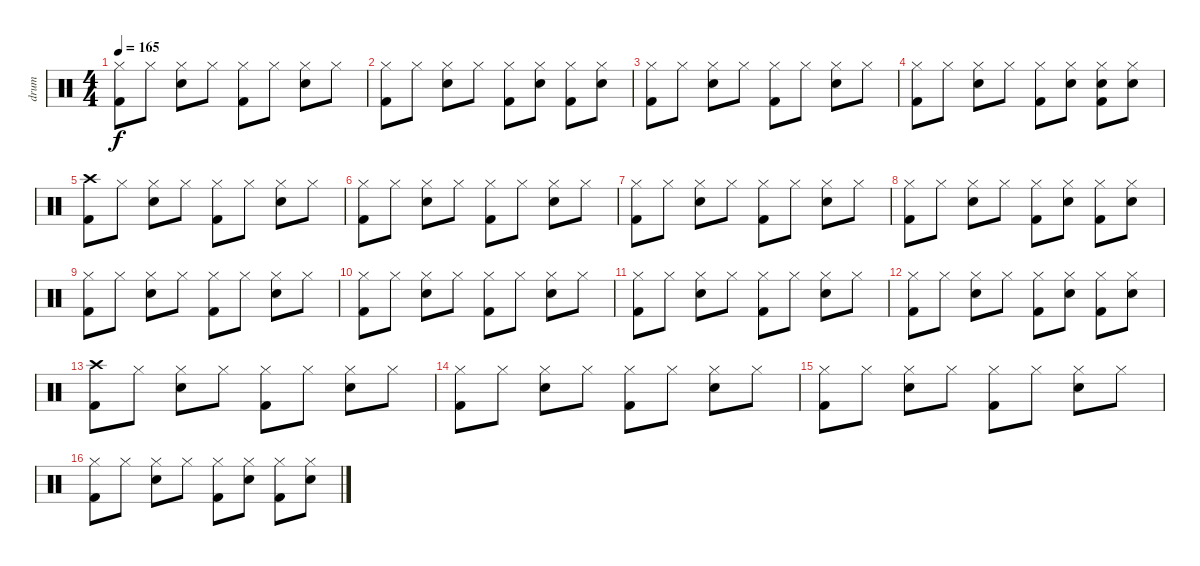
\track ("drum" "drum") {instrument percussion}
\staff {score}
\articulation defaults
\ts (4 4)
\tempo 165
\clef neutral
\ks c
("Hi-Hat (closed)" "Kick (hit) 2").8{dy f} "Hi-Hat (closed)".8 ("Hi-Hat (closed)" "Snare (hit) 2").8 "Hi-Hat (closed)".8 ("Hi-Hat (closed)" "Kick (hit) 2").8 "Hi-Hat (closed)".8 ("Hi-Hat (closed)" "Snare (hit) 2").8 "Hi-Hat (closed)".8 |
("Hi-Hat (closed)" "Kick (hit) 2").8 "Hi-Hat (closed)".8 ("Hi-Hat (closed)" "Snare (hit) 2").8 "Hi-Hat (closed)".8 ("Hi-Hat (closed)" "Kick (hit) 2").8 ("Hi-Hat (closed)" "Snare (hit) 2").8 ("Hi-Hat (closed)" "Kick (hit) 2").8 ("Hi-Hat (closed)" "Snare (hit) 2").8 |
("Hi-Hat (closed)" "Kick (hit) 2").8 "Hi-Hat (closed)".8 ("Hi-Hat (closed)" "Snare (hit) 2").8 "Hi-Hat (closed)".8 ("Hi-Hat (closed)" "Kick (hit) 2").8 "Hi-Hat (closed)".8 ("Hi-Hat (closed)" "Snare (hit) 2").8 "Hi-Hat (closed)".8 |
("Hi-Hat (closed)" "Kick (hit) 2").8 "Hi-Hat (closed)".8 ("Hi-Hat (closed)" "Snare (hit) 2").8 "Hi-Hat (closed)".8 ("Hi-Hat (closed)" "Kick (hit) 2").8 ("Hi-Hat (closed)" "Snare (hit) 2").8 ("Hi-Hat (closed)" "Snare (hit) 2" "Kick (hit) 2").8 ("Hi-Hat (closed)" "Snare (hit) 2").8 |
("Crash high (hit)" "Kick (hit) 2").8 "Hi-Hat (closed)".8 ("Hi-Hat (closed)" "Snare (hit) 2").8 "Hi-Hat (closed)".8 ("Hi-Hat (closed)" "Kick (hit) 2").8 "Hi-Hat (closed)".8 ("Hi-Hat (closed)" "Snare (hit) 2").8 "Hi-Hat (closed)".8 |
("Hi-Hat (closed)" "Kick (hit) 2").8 "Hi-Hat (closed)".8 ("Hi-Hat (closed)" "Snare (hit) 2").8 "Hi-Hat (closed)".8 ("Hi-Hat (closed)" "Kick (hit) 2").8 "Hi-Hat (closed)".8 ("Hi-Hat (closed)" "Snare (hit) 2").8 "Hi-Hat (closed)".8 |
("Hi-Hat (closed)" "Kick (hit) 2").8 "Hi-Hat (closed)".8 ("Hi-Hat (closed)" "Snare (hit) 2").8 "Hi-Hat (closed)".8 ("Hi-Hat (closed)" "Kick (hit) 2").8 "Hi-Hat (closed)".8 ("Hi-Hat (closed)" "Snare (hit) 2").8 "Hi-Hat (closed)".8 |
("Hi-Hat (closed)" "Kick (hit) 2").8 "Hi-Hat (closed)".8 ("Hi-Hat (closed)" "Snare (hit) 2").8 "Hi-Hat (closed)".8 ("Hi-Hat (closed)" "Kick (hit) 2").8 ("Hi-Hat (closed)" "Snare (hit) 2").8 ("Hi-Hat (closed)" "Kick (hit) 2").8 ("Hi-Hat (closed)" "Snare (hit) 2").8 |
("Hi-Hat (closed)" "Kick (hit) 2").8 "Hi-Hat (closed)".8 ("Hi-Hat (closed)" "Snare (hit) 2").8 "Hi-Hat (closed)".8 ("Hi-Hat (closed)" "Kick (hit) 2").8 "Hi-Hat (closed)".8 ("Hi-Hat (closed)" "Snare (hit) 2").8 "Hi-Hat (closed)".8 |
("Hi-Hat (closed)" "Kick (hit) 2").8 "Hi-Hat (closed)".8 ("Hi-Hat (closed)" "Snare (hit) 2").8 "Hi-Hat (closed)".8 ("Hi-Hat (closed)" "Kick (hit) 2").8 "Hi-Hat (closed)".8 ("Hi-Hat (closed)" "Snare (hit) 2").8 "Hi-Hat (closed)".8 |
("Hi-Hat (closed)" "Kick (hit) 2").8 "Hi-Hat (closed)".8 ("Hi-Hat (closed)" "Snare (hit) 2").8 "Hi-Hat (closed)".8 ("Hi-Hat (closed)" "Kick (hit) 2").8 "Hi-Hat (closed)".8 ("Hi-Hat (closed)" "Snare (hit) 2").8 "Hi-Hat (closed)".8 |
("Hi-Hat (closed)" "Kick (hit) 2").8 "Hi-Hat (closed)".8 ("Hi-Hat (closed)" "Snare (hit) 2").8 "Hi-Hat (closed)".8 ("Hi-Hat (closed)" "Kick (hit) 2").8 ("Hi-Hat (closed)" "Snare (hit) 2").8 ("Hi-Hat (closed)" "Kick (hit) 2").8 ("Hi-Hat (closed)" "Snare (hit) 2").8 |
("Crash high (hit)" "Kick (hit) 2").8 "Hi-Hat (closed)".8 ("Hi-Hat (closed)" "Snare (hit) 2").8 "Hi-Hat (closed)".8 ("Hi-Hat (closed)" "Kick (hit) 2").8 "Hi-Hat (closed)".8 ("Hi-Hat (closed)" "Snare (hit) 2").8 "Hi-Hat (closed)".8 |
("Hi-Hat (closed)" "Kick (hit) 2").8 "Hi-Hat (closed)".8 ("Hi-Hat (closed)" "Snare (hit) 2").8 "Hi-Hat (closed)".8 ("Hi-Hat (closed)" "Kick (hit) 2").8 "Hi-Hat (closed)".8 ("Hi-Hat (closed)" "Snare (hit) 2").8 "Hi-Hat (closed)".8 |
("Hi-Hat (closed)" "Kick (hit) 2").8 "Hi-Hat (closed)".8 ("Hi-Hat (closed)" "Snare (hit) 2").8 "Hi-Hat (closed)".8 ("Hi-Hat (closed)" "Kick (hit) 2").8 "Hi-Hat (closed)".8 ("Hi-Hat (closed)" "Snare (hit) 2").8 "Hi-Hat (closed)".8 |
("Hi-Hat (closed)" "Kick (hit) 2").8 "Hi-Hat (closed)".8 ("Hi-Hat (closed)" "Snare (hit) 2").8 "Hi-Hat (closed)".8 ("Hi-Hat (closed)" "Kick (hit) 2").8 ("Hi-Hat (closed)" "Snare (hit) 2").8 ("Hi-Hat (closed)" "Kick (hit) 2").8 ("Hi-Hat (closed)" "Snare (hit) 2").8
